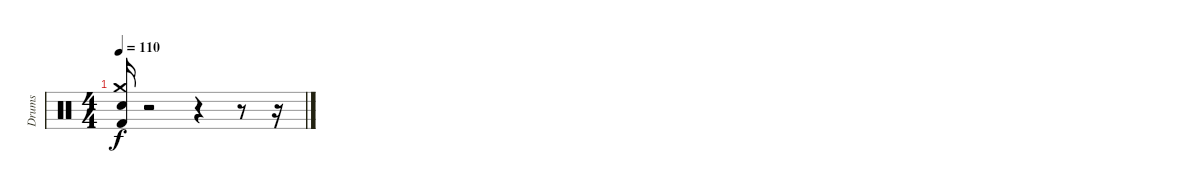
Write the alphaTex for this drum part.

\track ("Drums" "Drums") {instrument percussion}
\staff {score}
\articulation defaults
\ts (4 4)
\tempo 110
\clef neutral
\ks c
("Kick (hit) 2" "Crash medium (hit)" "Snare (hit) 2").16{dy f} r.2 r.4 r.8 r.16
